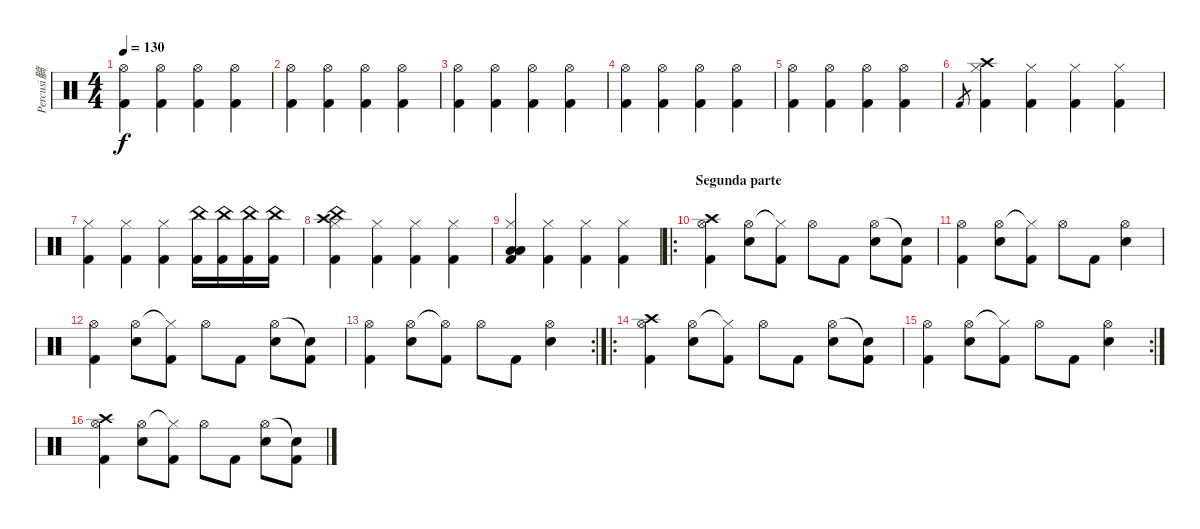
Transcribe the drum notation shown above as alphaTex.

\track ("Percusi髇" "Percusi髇") {instrument percussion}
\staff {score}
\articulation defaults
\ts (4 4)
\tempo 130
\clef neutral
\ks c
("Hi-Hat (open)" "Kick (hit) 2").4{dy f} ("Hi-Hat (open)" "Kick (hit) 2").4 ("Hi-Hat (open)" "Kick (hit) 2").4 ("Hi-Hat (open)" "Kick (hit) 2").4 |
("Hi-Hat (open)" "Kick (hit) 2").4 ("Hi-Hat (open)" "Kick (hit) 2").4 ("Hi-Hat (open)" "Kick (hit) 2").4 ("Hi-Hat (open)" "Kick (hit) 2").4 |
("Hi-Hat (open)" "Kick (hit) 2").4 ("Hi-Hat (open)" "Kick (hit) 2").4 ("Hi-Hat (open)" "Kick (hit) 2").4 ("Hi-Hat (open)" "Kick (hit) 2").4 |
("Hi-Hat (open)" "Kick (hit) 2").4 ("Hi-Hat (open)" "Kick (hit) 2").4 ("Hi-Hat (open)" "Kick (hit) 2").4 ("Hi-Hat (open)" "Kick (hit) 2").4 |
("Hi-Hat (open)" "Kick (hit) 2").4 ("Hi-Hat (open)" "Kick (hit) 2").4 ("Hi-Hat (open)" "Kick (hit) 2").4 ("Hi-Hat (open)" "Kick (hit) 2").4 |
"Kick (hit) 2".8{gr} ("Crash high (hit)" "Hi-Hat (closed)" "Kick (hit) 2").4 ("Hi-Hat (closed)" "Kick (hit) 2").4 ("Hi-Hat (closed)" "Kick (hit) 2").4 ("Hi-Hat (closed)" "Kick (hit) 2").4 |
("Hi-Hat (closed)" "Kick (hit) 2").4 ("Hi-Hat (closed)" "Kick (hit) 2").4 ("Hi-Hat (closed)" "Kick (hit) 2").4 ("China (hit)" "Kick (hit) 2").16 ("China (hit)" "Kick (hit) 2").16 ("China (hit)" "Kick (hit) 2").16 ("China (hit)" "Kick (hit) 2").16 |
("China (hit)" "Crash high (hit)" "Hi-Hat (closed)" "Kick (hit) 2").4 ("Hi-Hat (closed)" "Kick (hit) 2").4 ("Hi-Hat (closed)" "Kick (hit) 2").4 ("Hi-Hat (closed)" "Kick (hit) 2").4 |
("Low Tom (hit)" "Low Tom (hit)" "Hi-Hat (closed)" "Kick (hit) 2").4 ("Hi-Hat (closed)" "Kick (hit) 2").4 ("Hi-Hat (closed)" "Kick (hit) 2").4 ("Hi-Hat (closed)" "Kick (hit) 2").4 |
\ro
\section ("" "Segunda parte")
("Crash high (hit)" "Hi-Hat (open)" "Kick (hit) 2").4 ("Hi-Hat (open)" "Electric Snare (hit)").8 ("Hi-Hat (closed)"{t} "Kick (hit) 2").8 "Hi-Hat (open)".8 "Kick (hit) 2".8 ("Hi-Hat (open)" "Electric Snare (hit)").8 ("Snare (hit)"{t} "Kick (hit) 2").8 |
("Hi-Hat (open)" "Kick (hit) 2").4 ("Hi-Hat (open)" "Electric Snare (hit)").8 ("Hi-Hat (closed)"{t} "Kick (hit) 2").8 "Hi-Hat (open)".8 "Kick (hit) 2".8 ("Hi-Hat (open)" "Electric Snare (hit)").4 |
("Hi-Hat (open)" "Kick (hit) 2").4 ("Hi-Hat (open)" "Electric Snare (hit)").8 ("Hi-Hat (closed)"{t} "Kick (hit) 2").8 "Hi-Hat (open)".8 "Kick (hit) 2".8 ("Hi-Hat (open)" "Electric Snare (hit)").8 ("Snare (hit)"{t} "Kick (hit) 2").8 |
\rc 2
("Hi-Hat (open)" "Kick (hit) 2").4 ("Hi-Hat (open)" "Electric Snare (hit)").8 ("Hi-Hat (open)"{t} "Kick (hit) 2").8 "Hi-Hat (open)".8 "Kick (hit) 2".8 ("Hi-Hat (open)" "Electric Snare (hit)").4 |
\ro
("Crash high (hit)" "Hi-Hat (open)" "Kick (hit) 2").4 ("Hi-Hat (open)" "Electric Snare (hit)").8 ("Hi-Hat (closed)"{t} "Kick (hit) 2").8 "Hi-Hat (open)".8 "Kick (hit) 2".8 ("Hi-Hat (open)" "Electric Snare (hit)").8 ("Snare (hit)"{t} "Kick (hit) 2").8 |
\rc 2
("Hi-Hat (open)" "Kick (hit) 2").4 ("Hi-Hat (open)" "Electric Snare (hit)").8 ("Hi-Hat (closed)"{t} "Kick (hit) 2").8 "Hi-Hat (open)".8 "Kick (hit) 2".8 ("Hi-Hat (open)" "Electric Snare (hit)").4 |
("Crash high (hit)" "Hi-Hat (open)" "Kick (hit) 2").4 ("Hi-Hat (open)" "Electric Snare (hit)").8 ("Hi-Hat (closed)"{t} "Kick (hit) 2").8 "Hi-Hat (open)".8 "Kick (hit) 2".8 ("Hi-Hat (open)" "Electric Snare (hit)").8 ("Snare (hit)"{t} "Kick (hit) 2").8
